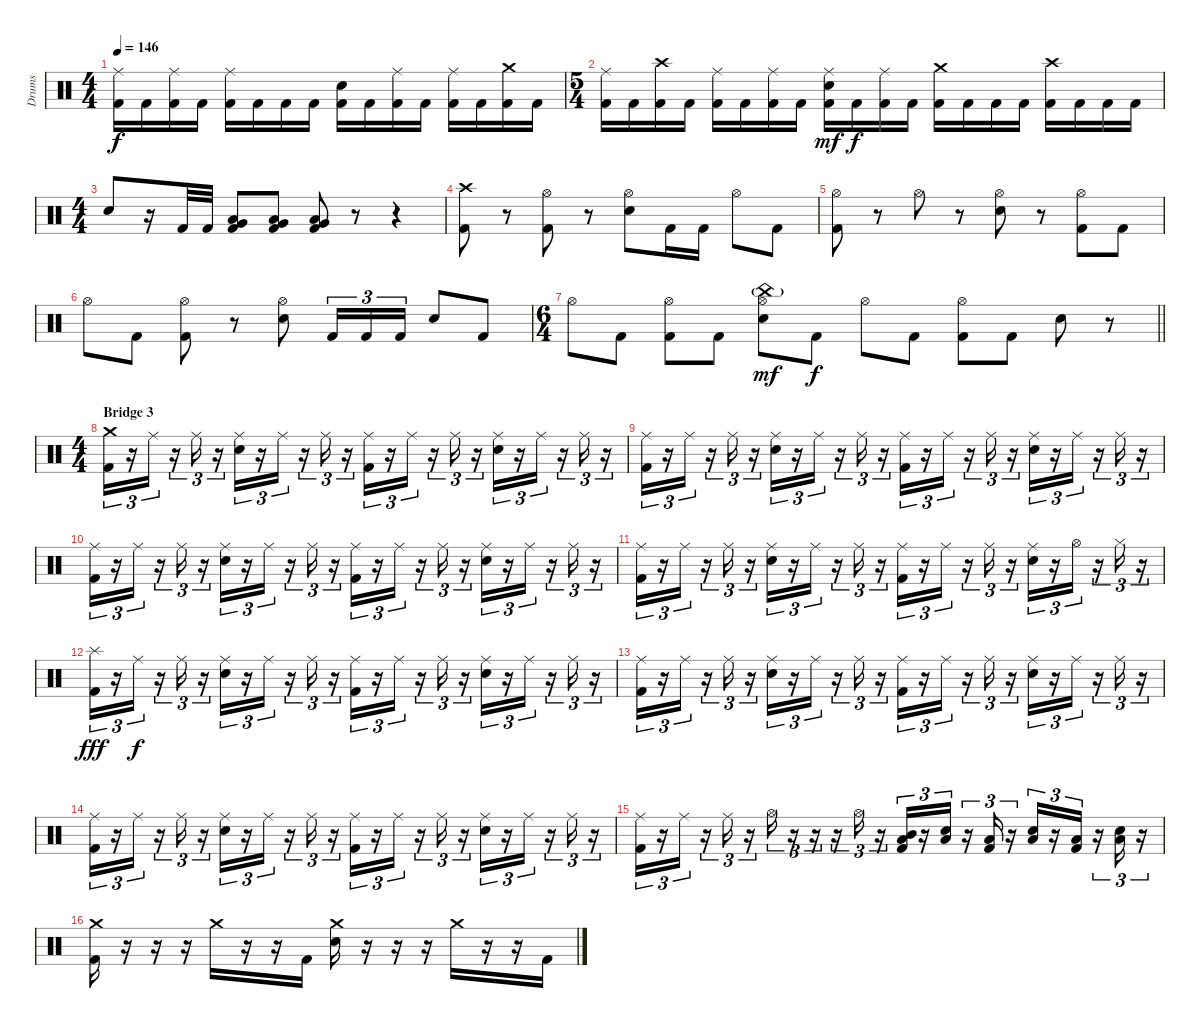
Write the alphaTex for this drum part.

\track ("Drums" "Drums") {instrument percussion}
\staff {score}
\articulation defaults
\ts (4 4)
\tempo 146
\clef neutral
\ks c
("Ride (middle)" "Kick (hit) 2").16{dy f} "Kick (hit) 2".16 ("Ride (middle)" "Kick (hit) 2").16 "Kick (hit) 2".16 ("Ride (middle)" "Kick (hit) 2").16 "Kick (hit) 2".16 "Kick (hit) 2".16 "Kick (hit) 2".16 ("Electric Snare (hit)" "Kick (hit) 2").16 "Kick (hit) 2".16 ("Ride (middle)" "Kick (hit) 2").16 "Kick (hit) 2".16 ("Ride (middle)" "Kick (hit) 2").16 "Kick (hit) 2".16 ("Crash medium (hit)" "Kick (hit) 2").16 "Kick (hit) 2".16 |
\ts (5 4)
("Ride (middle)" "Kick (hit) 2").16 "Kick (hit) 2".16 ("Crash high (hit)" "Kick (hit) 2").16 "Kick (hit) 2".16 ("Ride (middle)" "Kick (hit) 2").16 "Kick (hit) 2".16 ("Ride (middle)" "Kick (hit) 2").16 "Kick (hit) 2".16 ("Ride (middle)" "Electric Snare (hit)" "Kick (hit) 2").16{dy mf} "Kick (hit) 2".16{dy f} ("Ride (middle)" "Kick (hit) 2").16 "Kick (hit) 2".16 ("Crash medium (hit)" "Kick (hit) 2").16 "Kick (hit) 2".16 "Kick (hit) 2".16 "Kick (hit) 2".16 ("Crash high (hit)" "Kick (hit) 2").16 "Kick (hit) 2".16 "Kick (hit) 2".16 "Kick (hit) 2".16 |
\ts (4 4)
"Electric Snare (hit)".8 r.16 "Kick (hit) 2".32 "Kick (hit) 2".32 ("Very Low Tom (hit)" "Low Tom (hit)" "Kick (hit) 2").8 ("Very Low Tom (hit)" "Low Tom (hit)" "Kick (hit) 2").8 ("Very Low Tom (hit)" "Low Tom (hit)" "Kick (hit) 2").8 r.8 r.4 |
("Crash high (hit)" "Kick (hit) 2").8 r.8 ("Hi-Hat (open)" "Kick (hit) 2").8 r.8 ("Hi-Hat (open)" "Electric Snare (hit)").8 "Kick (hit) 2".16 "Kick (hit) 2".16 "Hi-Hat (open)".8 "Kick (hit) 2".8 |
("Hi-Hat (open)" "Kick (hit) 2").8 r.8 "Hi-Hat (open)".8 r.8 ("Hi-Hat (open)" "Electric Snare (hit)").8 r.8 ("Hi-Hat (open)" "Kick (hit) 2").8 "Kick (hit) 2".8 |
"Hi-Hat (open)".8 "Kick (hit) 2".8 ("Hi-Hat (open)" "Kick (hit) 2").8 r.8 ("Hi-Hat (open)" "Electric Snare (hit)").8 "Kick (hit) 2".16{tu (3 2)} "Kick (hit) 2".16{tu (3 2)} "Kick (hit) 2".16{tu (3 2)} "Electric Snare (hit)".8 "Kick (hit) 2".8 |
\ts (6 4)
\barLineRight lightlight "Hi-Hat (open)".8 "Kick (hit) 2".8
("Hi-Hat (open)" "Kick (hit) 2").8 "Kick (hit) 2".8 ("China (hit)"{g} "Hi-Hat (open)" "Electric Snare (hit)").8{dy mf} "Kick (hit) 2".8{dy f} "Hi-Hat (open)".8 "Kick (hit) 2".8 ("Hi-Hat (open)" "Kick (hit) 2").8 "Kick (hit) 2".8 "Electric Snare (hit)".8 r.8 |
\ts (4 4)
\section ("" "Bridge 3")
("Crash medium (hit)" "Kick (hit) 2").16{tu (3 2)} r.16{tu (3 2)} "Ride (middle)".16{tu (3 2)} r.16{tu (3 2)} "Ride (middle)".16{tu (3 2)} r.16{tu (3 2)} ("Ride (middle)" "Electric Snare (hit)").16{tu (3 2)} r.16{tu (3 2)} "Ride (middle)".16{tu (3 2)} r.16{tu (3 2)} "Ride (middle)".16{tu (3 2)} r.16{tu (3 2)} ("Ride (middle)" "Kick (hit) 2").16{tu (3 2)} r.16{tu (3 2)} "Ride (middle)".16{tu (3 2)} r.16{tu (3 2)} "Ride (middle)".16{tu (3 2)} r.16{tu (3 2)} ("Ride (middle)" "Electric Snare (hit)").16{tu (3 2)} r.16{tu (3 2)} "Ride (middle)".16{tu (3 2)} r.16{tu (3 2)} "Ride (middle)".16{tu (3 2)} r.16{tu (3 2)} |
("Ride (middle)" "Kick (hit) 2").16{tu (3 2)} r.16{tu (3 2)} "Ride (middle)".16{tu (3 2)} r.16{tu (3 2)} "Ride (middle)".16{tu (3 2)} r.16{tu (3 2)} ("Ride (middle)" "Electric Snare (hit)").16{tu (3 2)} r.16{tu (3 2)} "Ride (middle)".16{tu (3 2)} r.16{tu (3 2)} "Ride (middle)".16{tu (3 2)} r.16{tu (3 2)} ("Ride (middle)" "Kick (hit) 2").16{tu (3 2)} r.16{tu (3 2)} "Ride (middle)".16{tu (3 2)} r.16{tu (3 2)} "Ride (middle)".16{tu (3 2)} r.16{tu (3 2)} ("Ride (middle)" "Electric Snare (hit)").16{tu (3 2)} r.16{tu (3 2)} "Ride (middle)".16{tu (3 2)} r.16{tu (3 2)} "Ride (middle)".16{tu (3 2)} r.16{tu (3 2)} |
("Ride (middle)" "Kick (hit) 2").16{tu (3 2)} r.16{tu (3 2)} "Ride (middle)".16{tu (3 2)} r.16{tu (3 2)} "Ride (middle)".16{tu (3 2)} r.16{tu (3 2)} ("Ride (middle)" "Electric Snare (hit)").16{tu (3 2)} r.16{tu (3 2)} "Ride (middle)".16{tu (3 2)} r.16{tu (3 2)} "Ride (middle)".16{tu (3 2)} r.16{tu (3 2)} ("Ride (middle)" "Kick (hit) 2").16{tu (3 2)} r.16{tu (3 2)} "Ride (middle)".16{tu (3 2)} r.16{tu (3 2)} "Ride (middle)".16{tu (3 2)} r.16{tu (3 2)} ("Ride (middle)" "Electric Snare (hit)").16{tu (3 2)} r.16{tu (3 2)} "Ride (middle)".16{tu (3 2)} r.16{tu (3 2)} "Ride (middle)".16{tu (3 2)} r.16{tu (3 2)} |
("Ride (middle)" "Kick (hit) 2").16{tu (3 2)} r.16{tu (3 2)} "Ride (middle)".16{tu (3 2)} r.16{tu (3 2)} "Ride (middle)".16{tu (3 2)} r.16{tu (3 2)} ("Ride (middle)" "Electric Snare (hit)").16{tu (3 2)} r.16{tu (3 2)} "Ride (middle)".16{tu (3 2)} r.16{tu (3 2)} "Ride (middle)".16{tu (3 2)} r.16{tu (3 2)} ("Ride (middle)" "Kick (hit) 2").16{tu (3 2)} r.16{tu (3 2)} "Ride (middle)".16{tu (3 2)} r.16{tu (3 2)} "Ride (middle)".16{tu (3 2)} r.16{tu (3 2)} ("Ride (middle)" "Electric Snare (hit)").16{tu (3 2)} r.16{tu (3 2)} "Hi-Hat (open)".16{tu (3 2)} r.16{tu (3 2)} "Hi-Hat (closed)".16{tu (3 2)} r.16{tu (3 2)} |
("Splash (hit)" "Kick (hit) 2").16{tu (3 2) dy fff} r.16{tu (3 2)} "Ride (middle)".16{tu (3 2) dy f} r.16{tu (3 2)} "Ride (middle)".16{tu (3 2)} r.16{tu (3 2)} ("Ride (middle)" "Electric Snare (hit)").16{tu (3 2)} r.16{tu (3 2)} "Ride (middle)".16{tu (3 2)} r.16{tu (3 2)} "Ride (middle)".16{tu (3 2)} r.16{tu (3 2)} ("Ride (middle)" "Kick (hit) 2").16{tu (3 2)} r.16{tu (3 2)} "Ride (middle)".16{tu (3 2)} r.16{tu (3 2)} "Ride (middle)".16{tu (3 2)} r.16{tu (3 2)} ("Ride (middle)" "Electric Snare (hit)").16{tu (3 2)} r.16{tu (3 2)} "Ride (middle)".16{tu (3 2)} r.16{tu (3 2)} "Ride (middle)".16{tu (3 2)} r.16{tu (3 2)} |
("Ride (middle)" "Kick (hit) 2").16{tu (3 2)} r.16{tu (3 2)} "Ride (middle)".16{tu (3 2)} r.16{tu (3 2)} "Ride (middle)".16{tu (3 2)} r.16{tu (3 2)} ("Ride (middle)" "Electric Snare (hit)").16{tu (3 2)} r.16{tu (3 2)} "Ride (middle)".16{tu (3 2)} r.16{tu (3 2)} "Ride (middle)".16{tu (3 2)} r.16{tu (3 2)} ("Ride (middle)" "Kick (hit) 2").16{tu (3 2)} r.16{tu (3 2)} "Ride (middle)".16{tu (3 2)} r.16{tu (3 2)} "Ride (middle)".16{tu (3 2)} r.16{tu (3 2)} ("Ride (middle)" "Electric Snare (hit)").16{tu (3 2)} r.16{tu (3 2)} "Ride (middle)".16{tu (3 2)} r.16{tu (3 2)} "Ride (middle)".16{tu (3 2)} r.16{tu (3 2)} |
("Ride (middle)" "Kick (hit) 2").16{tu (3 2)} r.16{tu (3 2)} "Ride (middle)".16{tu (3 2)} r.16{tu (3 2)} "Ride (middle)".16{tu (3 2)} r.16{tu (3 2)} ("Ride (middle)" "Electric Snare (hit)").16{tu (3 2)} r.16{tu (3 2)} "Ride (middle)".16{tu (3 2)} r.16{tu (3 2)} "Ride (middle)".16{tu (3 2)} r.16{tu (3 2)} ("Ride (middle)" "Kick (hit) 2").16{tu (3 2)} r.16{tu (3 2)} "Ride (middle)".16{tu (3 2)} r.16{tu (3 2)} "Ride (middle)".16{tu (3 2)} r.16{tu (3 2)} ("Ride (middle)" "Electric Snare (hit)").16{tu (3 2)} r.16{tu (3 2)} "Ride (middle)".16{tu (3 2)} r.16{tu (3 2)} "Ride (middle)".16{tu (3 2)} r.16{tu (3 2)} |
("Ride (middle)" "Kick (hit) 2").16{tu (3 2)} r.16{tu (3 2)} "Ride (middle)".16{tu (3 2)} r.16{tu (3 2)} "Ride (middle)".16{tu (3 2)} r.16{tu (3 2)} "Hi-Hat (open)".16{tu (3 2)} r.16{tu (3 2)} r.16{tu (3 2)} r.16{tu (3 2)} "Hi-Hat (open)".16{tu (3 2)} r.16{tu (3 2)} ("Mid Tom (hit)" "Low Tom (hit)" "Kick (hit) 2").16{tu (3 2)} r.16{tu (3 2)} ("Low Tom (hit)" "Electric Snare (hit)").16{tu (3 2)} r.16{tu (3 2)} ("Low Tom (hit)" "Kick (hit) 2").16{tu (3 2)} r.16{tu (3 2)} ("Low Tom (hit)" "Electric Snare (hit)").16{tu (3 2)} r.16{tu (3 2)} ("Low Tom (hit)" "Kick (hit) 2").16{tu (3 2)} r.16{tu (3 2)} ("Low Tom (hit)" "Electric Snare (hit)").16{tu (3 2)} r.16{tu (3 2)} |
("Crash medium (hit)" "Kick (hit) 2").16 r.16 r.16 r.16 "Crash medium (hit)".16 r.16 r.16 "Kick (hit) 2".16 ("Crash medium (hit)" "Electric Snare (hit)").16 r.16 r.16 r.16 "Crash medium (hit)".16 r.16 r.16 "Kick (hit) 2".16
